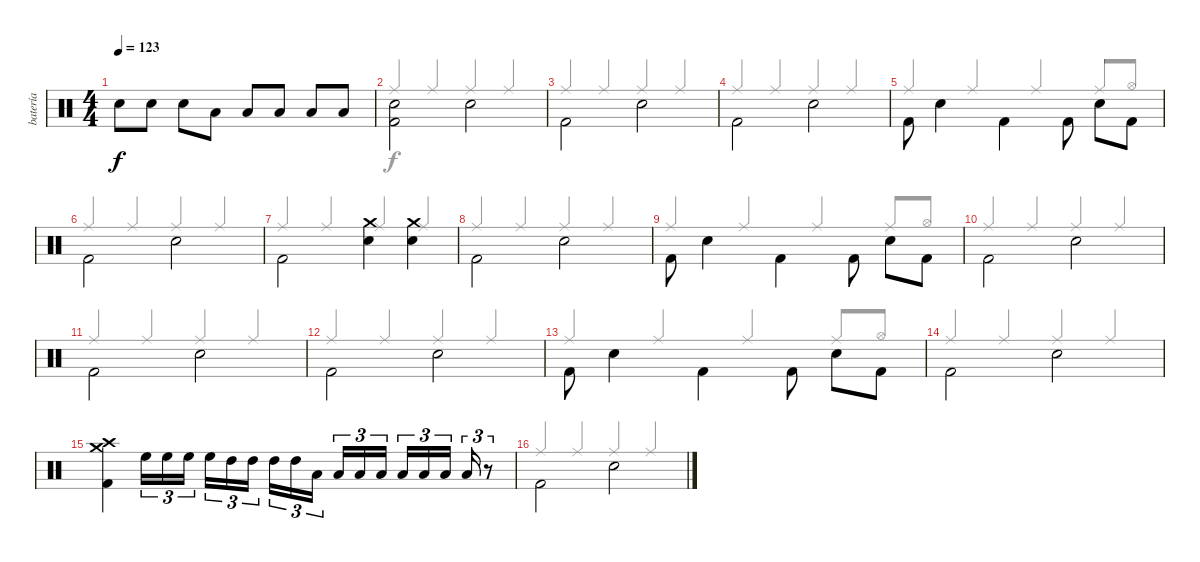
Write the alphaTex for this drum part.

\track ("batería" "batería") {instrument percussion}
\staff {score}
\articulation defaults
\voice
\ts (4 4)
\tempo 123
\clef neutral
\ks c "Snare (hit) 2"{t}.8{dy f} "Snare (hit) 2".8 "Snare (hit) 2".8 "Low Tom (hit)".8 "Low Tom (hit)".8 "Low Tom (hit)".8 "Low Tom (hit)".8 "Low Tom (hit)".8
|
("Kick (hit) 2" "Snare (hit)").2{beam Down} "Snare (hit) 2".2{beam Down} |
"Kick (hit) 2".2{beam Down} "Snare (hit) 2".2{beam Down} |
"Kick (hit) 2".2{beam Down} "Snare (hit) 2".2{beam Down} |
"Kick (hit) 2".8{beam Down} "Snare (hit) 2".4{beam Down} "Kick (hit) 2".4{beam Down} "Kick (hit) 2".8{beam Down} "Snare (hit) 2".8{beam Down} "Kick (hit) 2".8{beam Down} |
"Kick (hit) 2".2{beam Down} "Snare (hit) 2".2{beam Down} |
"Kick (hit) 2".2{beam Down} ("Snare (hit) 2" "Crash medium (hit)").4{beam Down} ("Snare (hit) 2" "Crash medium (hit)").4{beam Down} |
"Kick (hit) 2".2{beam Down} "Snare (hit) 2".2{beam Down} |
"Kick (hit) 2".8{beam Down} "Snare (hit) 2".4{beam Down} "Kick (hit) 2".4{beam Down} "Kick (hit) 2".8{beam Down} "Snare (hit) 2".8{beam Down} "Kick (hit) 2".8{beam Down} |
"Kick (hit) 2".2{beam Down} "Snare (hit) 2".2{beam Down} |
"Kick (hit) 2".2{beam Down} "Snare (hit) 2".2{beam Down} |
"Kick (hit) 2".2{beam Down} "Snare (hit) 2".2{beam Down} |
"Kick (hit) 2".8{beam Down} "Snare (hit) 2".4{beam Down} "Kick (hit) 2".4{beam Down} "Kick (hit) 2".8{beam Down} "Snare (hit) 2".8{beam Down} "Kick (hit) 2".8{beam Down} |
"Kick (hit) 2".2{beam Down} "Snare (hit) 2".2{beam Down} |
("Crash high (hit)" "Kick (hit) 2" "Crash medium (hit)").4 "High Floor Tom (hit)".16{tu (3 2)} "High Floor Tom (hit)".16{tu (3 2)} "High Floor Tom (hit)".16{tu (3 2) beam splitsecondary} "High Floor Tom (hit)".16{tu (3 2)} "High Tom (hit)".16{tu (3 2)} "High Tom (hit)".16{tu (3 2)} "High Tom (hit)".16{tu (3 2)} "High Tom (hit)".16{tu (3 2)} "Low Tom (hit)".16{tu (3 2) beam splitsecondary} "Low Tom (hit)".16{tu (3 2)} "Low Tom (hit)".16{tu (3 2)} "Low Tom (hit)".16{tu (3 2)} "Low Floor Tom (hit)".16{tu (3 2)} "Low Floor Tom (hit)".16{tu (3 2)} "Low Floor Tom (hit)".16{tu (3 2) beam splitsecondary} "Low Floor Tom (hit)".16{tu (3 2)} r.8{tu (3 2)} |
"Kick (hit) 2".2{beam Down} "Snare (hit) 2".2{beam Down}
\voice
\clef neutral
\ottava regular
\simile none
\ks c
|
"Ride (middle)".4{beam Up} "Ride (middle)".4{beam Up} "Ride (middle)".4{beam Up} "Ride (middle)".4{beam Up} |
"Ride (middle)".4{beam Up} "Ride (middle)".4{beam Up} "Ride (middle)".4{beam Up} "Ride (middle)".4{beam Up} |
"Ride (middle)".4{beam Up} "Ride (middle)".4{beam Up} "Ride (middle)".4{beam Up} "Ride (middle)".4{beam Up} |
"Ride (middle)".4{beam Up} "Ride (middle)".4{beam Up} "Ride (middle)".4{beam Up} "Ride (middle)".8{beam Up} "Hi-Hat (open)".8{beam Up} |
"Ride (middle)".4{beam Up} "Ride (middle)".4{beam Up} "Ride (middle)".4{beam Up} "Ride (middle)".4{beam Up} |
"Ride (middle)".4{beam Up} "Ride (middle)".4{beam Up} "Ride (middle)".4{beam Up} "Ride (middle)".4{beam Up} |
"Ride (middle)".4{beam Up} "Ride (middle)".4{beam Up} "Ride (middle)".4{beam Up} "Ride (middle)".4{beam Up} |
"Ride (middle)".4{beam Up} "Ride (middle)".4{beam Up} "Ride (middle)".4{beam Up} "Ride (middle)".8{beam Up} "Hi-Hat (open)".8{beam Up} |
"Ride (middle)".4{beam Up} "Ride (middle)".4{beam Up} "Ride (middle)".4{beam Up} "Ride (middle)".4{beam Up} |
"Ride (middle)".4{beam Up} "Ride (middle)".4{beam Up} "Ride (middle)".4{beam Up} "Ride (middle)".4{beam Up} |
"Ride (middle)".4{beam Up} "Ride (middle)".4{beam Up} "Ride (middle)".4{beam Up} "Ride (middle)".4{beam Up} |
"Ride (middle)".4{beam Up} "Ride (middle)".4{beam Up} "Ride (middle)".4{beam Up} "Ride (middle)".8{beam Up} "Hi-Hat (open)".8{beam Up} |
"Ride (middle)".4{beam Up} "Ride (middle)".4{beam Up} "Ride (middle)".4{beam Up} "Ride (middle)".4{beam Up} |
|
"Ride (middle)".4{beam Up} "Ride (middle)".4{beam Up} "Ride (middle)".4{beam Up} "Ride (middle)".4{beam Up}
